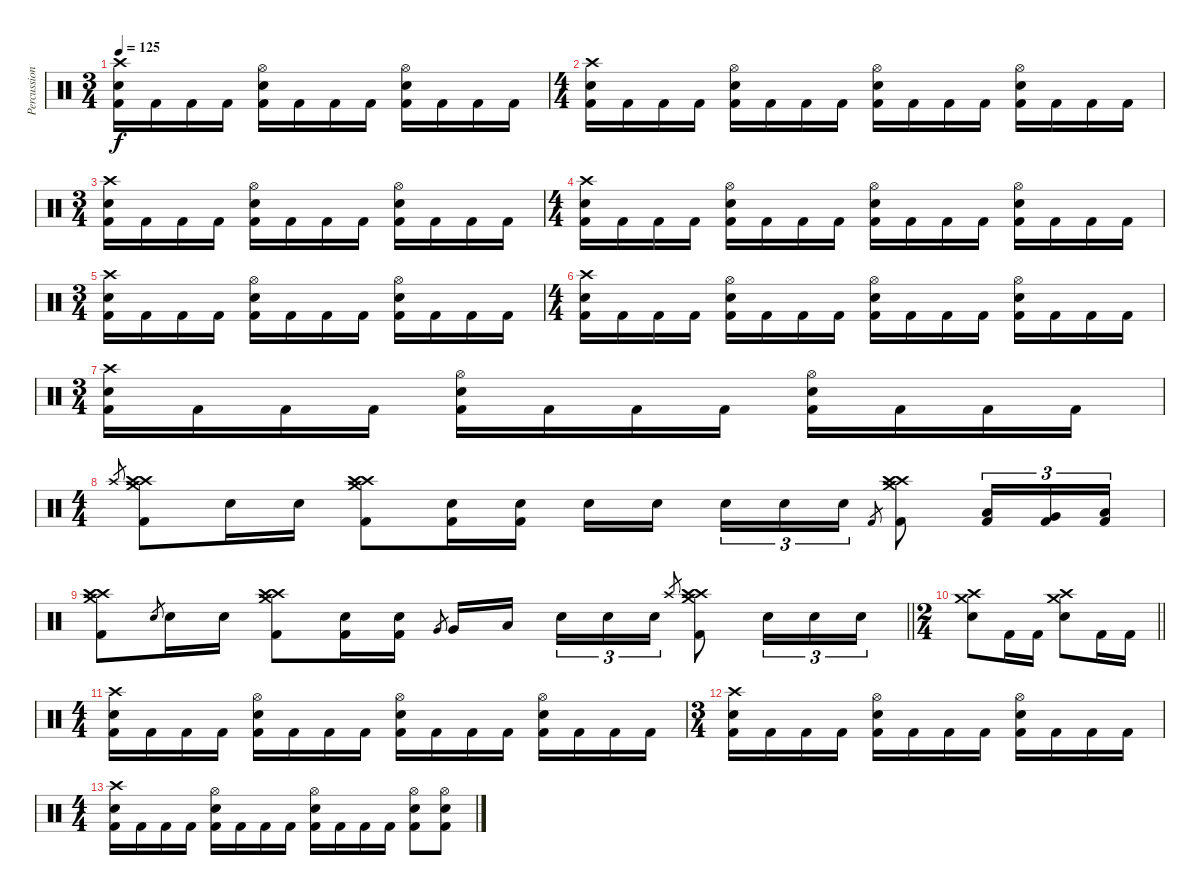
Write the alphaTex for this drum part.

\track ("Percussion" "Percussion") {instrument percussion}
\staff {score}
\articulation defaults
\ts (3 4)
\tempo 125
\clef neutral
\ks c
("Crash high (hit)" "Snare (hit) 2" "Kick (hit) 2").16{dy f} "Kick (hit) 2".16 "Kick (hit) 2".16 "Kick (hit) 2".16 ("Hi-Hat (open)" "Snare (hit) 2" "Kick (hit) 2").16 "Kick (hit) 2".16 "Kick (hit) 2".16 "Kick (hit) 2".16 ("Hi-Hat (open)" "Snare (hit) 2" "Kick (hit) 2").16 "Kick (hit) 2".16 "Kick (hit) 2".16 "Kick (hit) 2".16 |
\ts (4 4)
("Crash high (hit)" "Snare (hit) 2" "Kick (hit) 2").16 "Kick (hit) 2".16 "Kick (hit) 2".16 "Kick (hit) 2".16 ("Hi-Hat (open)" "Snare (hit) 2" "Kick (hit) 2").16 "Kick (hit) 2".16 "Kick (hit) 2".16 "Kick (hit) 2".16 ("Hi-Hat (open)" "Snare (hit) 2" "Kick (hit) 2").16 "Kick (hit) 2".16 "Kick (hit) 2".16 "Kick (hit) 2".16 ("Hi-Hat (open)" "Snare (hit) 2" "Kick (hit) 2").16 "Kick (hit) 2".16 "Kick (hit) 2".16 "Kick (hit) 2".16 |
\ts (3 4)
("Crash high (hit)" "Snare (hit) 2" "Kick (hit) 2").16 "Kick (hit) 2".16 "Kick (hit) 2".16 "Kick (hit) 2".16 ("Hi-Hat (open)" "Snare (hit) 2" "Kick (hit) 2").16 "Kick (hit) 2".16 "Kick (hit) 2".16 "Kick (hit) 2".16 ("Hi-Hat (open)" "Snare (hit) 2" "Kick (hit) 2").16 "Kick (hit) 2".16 "Kick (hit) 2".16 "Kick (hit) 2".16 |
\ts (4 4)
("Crash high (hit)" "Snare (hit) 2" "Kick (hit) 2").16 "Kick (hit) 2".16 "Kick (hit) 2".16 "Kick (hit) 2".16 ("Hi-Hat (open)" "Snare (hit) 2" "Kick (hit) 2").16 "Kick (hit) 2".16 "Kick (hit) 2".16 "Kick (hit) 2".16 ("Hi-Hat (open)" "Snare (hit) 2" "Kick (hit) 2").16 "Kick (hit) 2".16 "Kick (hit) 2".16 "Kick (hit) 2".16 ("Hi-Hat (open)" "Snare (hit) 2" "Kick (hit) 2").16 "Kick (hit) 2".16 "Kick (hit) 2".16 "Kick (hit) 2".16 |
\ts (3 4)
("Crash high (hit)" "Snare (hit) 2" "Kick (hit) 2").16 "Kick (hit) 2".16 "Kick (hit) 2".16 "Kick (hit) 2".16 ("Hi-Hat (open)" "Snare (hit) 2" "Kick (hit) 2").16 "Kick (hit) 2".16 "Kick (hit) 2".16 "Kick (hit) 2".16 ("Hi-Hat (open)" "Snare (hit) 2" "Kick (hit) 2").16 "Kick (hit) 2".16 "Kick (hit) 2".16 "Kick (hit) 2".16 |
\ts (4 4)
("Crash high (hit)" "Snare (hit) 2" "Kick (hit) 2").16 "Kick (hit) 2".16 "Kick (hit) 2".16 "Kick (hit) 2".16 ("Hi-Hat (open)" "Snare (hit) 2" "Kick (hit) 2").16 "Kick (hit) 2".16 "Kick (hit) 2".16 "Kick (hit) 2".16 ("Hi-Hat (open)" "Snare (hit) 2" "Kick (hit) 2").16 "Kick (hit) 2".16 "Kick (hit) 2".16 "Kick (hit) 2".16 ("Hi-Hat (open)" "Snare (hit) 2" "Kick (hit) 2").16 "Kick (hit) 2".16 "Kick (hit) 2".16 "Kick (hit) 2".16 |
\ts (3 4)
("Crash high (hit)" "Snare (hit) 2" "Kick (hit) 2").16 "Kick (hit) 2".16 "Kick (hit) 2".16 "Kick (hit) 2".16 ("Hi-Hat (open)" "Snare (hit) 2" "Kick (hit) 2").16 "Kick (hit) 2".16 "Kick (hit) 2".16 "Kick (hit) 2".16 ("Hi-Hat (open)" "Snare (hit) 2" "Kick (hit) 2").16 "Kick (hit) 2".16 "Kick (hit) 2".16 "Kick (hit) 2".16 |
\ts (4 4)
"Crash high (hit)".8{gr} ("Crash high (hit)" "Crash medium (hit)" "Crash high (hit)" "Kick (hit) 2").8 "Snare (hit) 2".16 "Snare (hit) 2".16 ("Crash high (hit)" "Crash medium (hit)" "Crash high (hit)" "Kick (hit) 2").8 ("Snare (hit) 2" "Kick (hit) 2").16 ("Snare (hit) 2" "Kick (hit) 2").16 "Snare (hit) 2".16 "Snare (hit) 2".16{beam splitsecondary} "Snare (hit) 2".16{tu (3 2)} "Snare (hit) 2".16{tu (3 2)} "Snare (hit) 2".16{tu (3 2)} "Kick (hit) 2".8{gr} ("Crash high (hit)" "Crash medium (hit)" "Crash high (hit)" "Kick (hit) 2").8 ("Low Tom (hit)" "Kick (hit) 2").16{tu (3 2)} ("Very Low Tom (hit)" "Kick (hit) 2").16{tu (3 2)} ("Low Floor Tom (hit)" "Kick (hit) 2").16{tu (3 2)} |
\barLineRight lightlight
("Crash high (hit)" "Crash medium (hit)" "Crash high (hit)" "Kick (hit) 2").8 "Snare (hit) 2".8{gr} "Snare (hit) 2".16 "Snare (hit) 2".16 ("Crash high (hit)" "Crash medium (hit)" "Crash high (hit)" "Kick (hit) 2").8 ("Snare (hit) 2" "Kick (hit) 2").16 ("Snare (hit) 2" "Kick (hit) 2").16 "Very Low Tom (hit)".8{gr} "Very Low Tom (hit)".16 "Low Floor Tom (hit)".16{beam splitsecondary} "Snare (hit) 2".16{tu (3 2)} "Snare (hit) 2".16{tu (3 2)} "Snare (hit) 2".16{tu (3 2)} "Crash high (hit)".8{gr} ("Crash high (hit)" "Crash medium (hit)" "Crash high (hit)" "Kick (hit) 2").8 "Snare (hit) 2".16{tu (3 2)} "Snare (hit) 2".16{tu (3 2)} "Snare (hit) 2".16{tu (3 2)} |
\ts (2 4)
\barLineRight lightlight
("Crash medium (hit)" "Crash high (hit)" "Snare (hit) 2").8 "Kick (hit) 2".16 "Kick (hit) 2".16 ("Crash high (hit)" "Crash medium (hit)" "Snare (hit) 2").8 "Kick (hit) 2".16 "Kick (hit) 2".16 |
\ts (4 4)
("Crash high (hit)" "Snare (hit) 2" "Kick (hit) 2").16 "Kick (hit) 2".16 "Kick (hit) 2".16 "Kick (hit) 2".16 ("Hi-Hat (open)" "Snare (hit) 2" "Kick (hit) 2").16 "Kick (hit) 2".16 "Kick (hit) 2".16 "Kick (hit) 2".16 ("Hi-Hat (open)" "Snare (hit) 2" "Kick (hit) 2").16 "Kick (hit) 2".16 "Kick (hit) 2".16 "Kick (hit) 2".16 ("Hi-Hat (open)" "Snare (hit) 2" "Kick (hit) 2").16 "Kick (hit) 2".16 "Kick (hit) 2".16 "Kick (hit) 2".16 |
\ts (3 4)
("Crash high (hit)" "Snare (hit) 2" "Kick (hit) 2").16 "Kick (hit) 2".16 "Kick (hit) 2".16 "Kick (hit) 2".16 ("Hi-Hat (open)" "Snare (hit) 2" "Kick (hit) 2").16 "Kick (hit) 2".16 "Kick (hit) 2".16 "Kick (hit) 2".16 ("Hi-Hat (open)" "Snare (hit) 2" "Kick (hit) 2").16 "Kick (hit) 2".16 "Kick (hit) 2".16 "Kick (hit) 2".16 |
\ts (4 4)
("Crash high (hit)" "Snare (hit) 2" "Kick (hit) 2").16 "Kick (hit) 2".16 "Kick (hit) 2".16 "Kick (hit) 2".16 ("Hi-Hat (open)" "Snare (hit) 2" "Kick (hit) 2").16 "Kick (hit) 2".16 "Kick (hit) 2".16 "Kick (hit) 2".16 ("Hi-Hat (open)" "Snare (hit) 2" "Kick (hit) 2").16 "Kick (hit) 2".16 "Kick (hit) 2".16 "Kick (hit) 2".16 ("Hi-Hat (open)" "Snare (hit) 2" "Kick (hit) 2").8 ("Hi-Hat (open)" "Snare (hit) 2" "Kick (hit) 2").8
